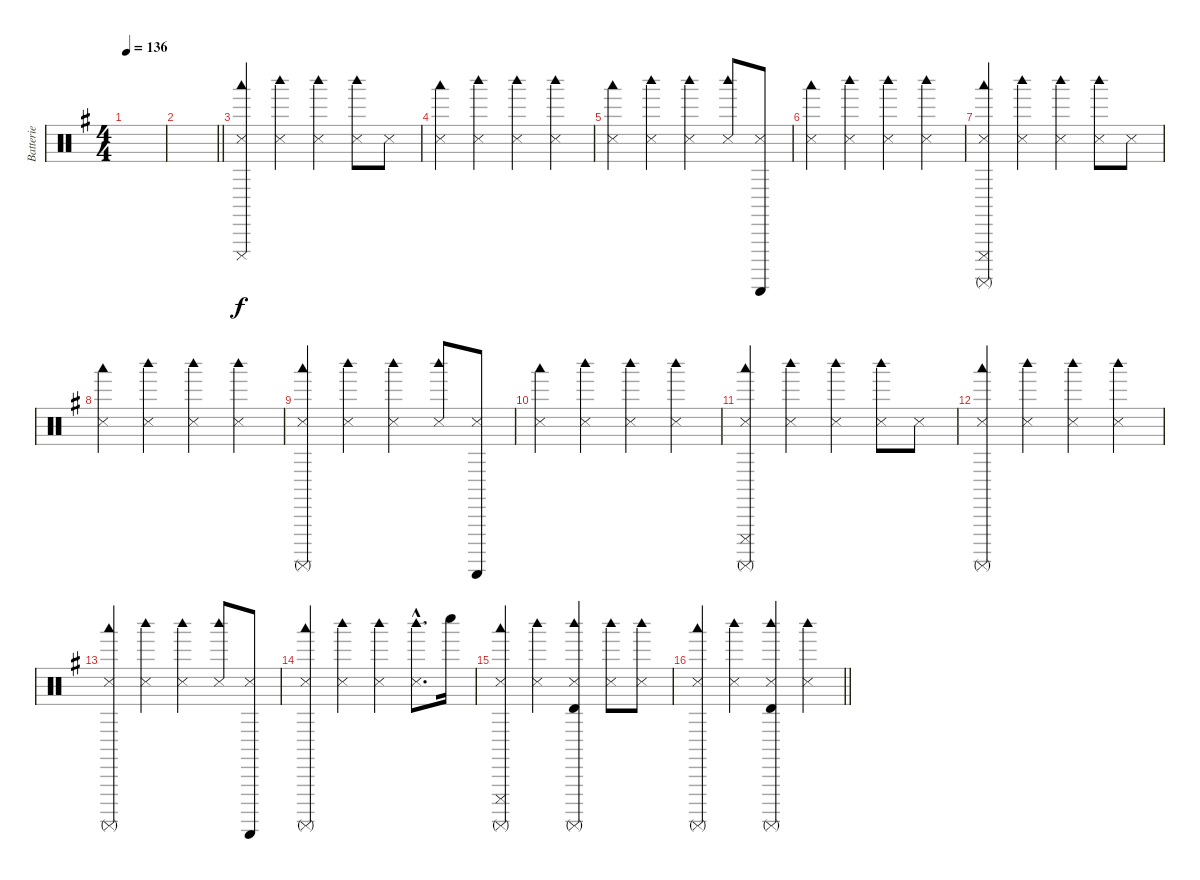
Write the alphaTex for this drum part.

\track ("Batterie" "Batterie") {instrument percussion}
\staff {score}
\articulation defaults
\ts (4 4)
\tempo 136
\clef neutral
\ks g
|
\barLineRight lightlight
|
("Cuica (mute)" "Snare (side stick) 3" "Woodblock low (hit)").4 ("Snare (side stick) 3" "Woodblock high (hit)").4 ("Snare (side stick) 3" "Woodblock high (hit)").4 ("Snare (side stick) 3" "Woodblock high (hit)").8 "Snare (side stick) 3".8 |
("Snare (side stick) 3" "Woodblock low (hit)").4 ("Snare (side stick) 3" "Woodblock high (hit)").4 ("Snare (side stick) 3" "Woodblock high (hit)").4 ("Snare (side stick) 3" "Woodblock high (hit)").4 |
("Snare (side stick) 3" "Woodblock low (hit)").4 ("Snare (side stick) 3" "Woodblock high (hit)").4 ("Snare (side stick) 3" "Woodblock high (hit)").4 ("Snare (side stick) 3" "Woodblock high (hit)").8 ("Snare (side stick) 3" "Guiro (scrap-return)").8 |
("Snare (side stick) 3" "Woodblock low (hit)").4 ("Snare (side stick) 3" "Woodblock high (hit)").4 ("Snare (side stick) 3" "Woodblock high (hit)").4 ("Snare (side stick) 3" "Woodblock high (hit)").4 |
("Cuica (mute)" "Snare (side stick) 3" "Woodblock low (hit)" "Surdo (mute)").4 ("Snare (side stick) 3" "Woodblock high (hit)").4 ("Snare (side stick) 3" "Woodblock high (hit)").4 ("Snare (side stick) 3" "Woodblock high (hit)").8 "Snare (side stick) 3".8 |
("Snare (side stick) 3" "Woodblock low (hit)").4 ("Snare (side stick) 3" "Woodblock high (hit)").4 ("Snare (side stick) 3" "Woodblock high (hit)").4 ("Snare (side stick) 3" "Woodblock high (hit)").4 |
("Snare (side stick) 3" "Woodblock low (hit)" "Surdo (mute)").4 ("Snare (side stick) 3" "Woodblock high (hit)").4 ("Snare (side stick) 3" "Woodblock high (hit)").4 ("Snare (side stick) 3" "Woodblock high (hit)").8 ("Snare (side stick) 3" "Guiro (scrap-return)").8 |
("Snare (side stick) 3" "Woodblock low (hit)").4 ("Snare (side stick) 3" "Woodblock high (hit)").4 ("Snare (side stick) 3" "Woodblock high (hit)").4 ("Snare (side stick) 3" "Woodblock high (hit)").4 |
("Cuica (mute)" "Snare (side stick) 3" "Woodblock low (hit)" "Surdo (mute)").4 ("Snare (side stick) 3" "Woodblock high (hit)").4 ("Snare (side stick) 3" "Woodblock high (hit)").4 ("Snare (side stick) 3" "Woodblock high (hit)").8 "Snare (side stick) 3".8 |
("Snare (side stick) 3" "Woodblock low (hit)" "Surdo (mute)").4 ("Snare (side stick) 3" "Woodblock high (hit)").4 ("Snare (side stick) 3" "Woodblock high (hit)").4 ("Snare (side stick) 3" "Woodblock high (hit)").4 |
("Snare (side stick) 3" "Woodblock low (hit)" "Surdo (mute)").4 ("Snare (side stick) 3" "Woodblock high (hit)").4 ("Snare (side stick) 3" "Woodblock high (hit)").4 ("Snare (side stick) 3" "Woodblock high (hit)").8 ("Snare (side stick) 3" "Guiro (scrap-return)").8 |
("Snare (side stick) 3" "Woodblock low (hit)" "Surdo (mute)").4 ("Snare (side stick) 3" "Woodblock high (hit)").4 ("Snare (side stick) 3" "Woodblock high (hit)").4 ("Snare (side stick) 3"{hac} "Woodblock high (hit)"{hac}).8{d} "Whistle low (hit)".16 |
("Cuica (mute)" "Snare (side stick) 3" "Woodblock low (hit)" "Surdo (mute)").4 ("Snare (side stick) 3" "Woodblock high (hit)").4 ("Snare (side stick) 3" "Woodblock high (hit)" "Timbale high (hit)" "Surdo (mute)").4 ("Snare (side stick) 3" "Woodblock high (hit)").8 ("Snare (side stick) 3" "Woodblock high (hit)").8 |
\barLineRight lightlight
("Snare (side stick) 3" "Woodblock low (hit)" "Surdo (mute)").4 ("Snare (side stick) 3" "Woodblock high (hit)").4 ("Snare (side stick) 3" "Woodblock high (hit)" "Timbale high (hit)" "Surdo (mute)").4 ("Snare (side stick) 3" "Woodblock high (hit)").4
